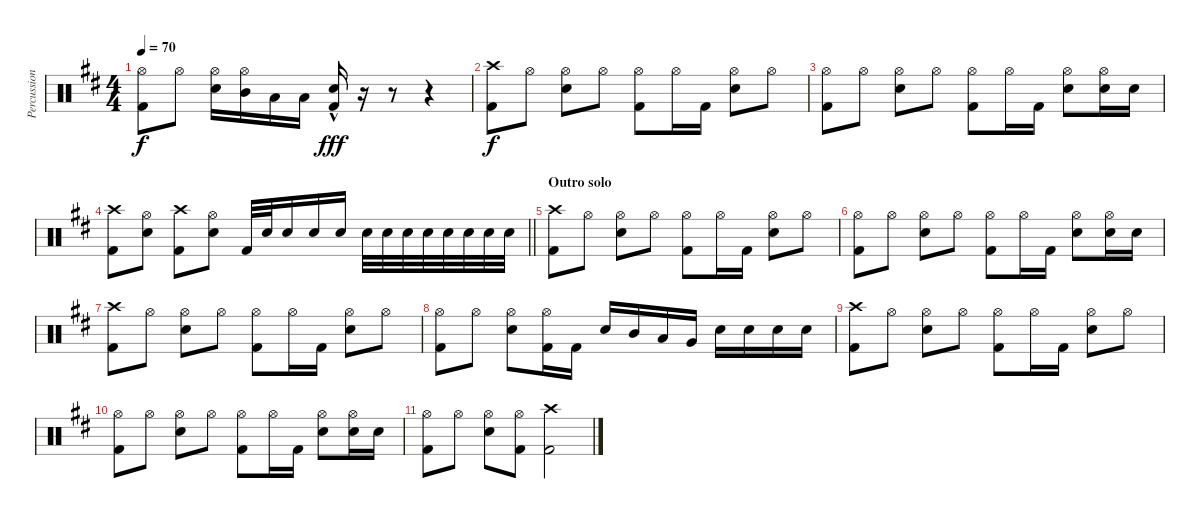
\track ("Percussion" "Percussion") {instrument percussion}
\staff {score}
\articulation defaults
\ts (4 4)
\tempo 70
\clef neutral
\ks d
("Hi-Hat (open)" "Kick (hit) 2").8{dy f} "Hi-Hat (open)".8 ("Hi-Hat (open)" "Snare (hit) 2").16 ("Hi-Hat (open)" "Mid Tom (hit)").16 "Low Tom (hit)".16 "Low Floor Tom (hit)".16 ("Snare (hit) 2"{hac} "Kick (hit) 2").16{dy fff} r.16 r.8 r.4 |
("Crash high (hit)" "Kick (hit) 2").8{dy f} "Hi-Hat (open)".8 ("Hi-Hat (open)" "Snare (hit) 2").8 "Hi-Hat (open)".8 ("Hi-Hat (open)" "Kick (hit) 2").8 "Hi-Hat (open)".16 "Kick (hit) 2".16 ("Hi-Hat (open)" "Snare (hit) 2").8 "Hi-Hat (open)".8 |
("Hi-Hat (open)" "Kick (hit) 2").8 "Hi-Hat (open)".8 ("Hi-Hat (open)" "Snare (hit) 2").8 "Hi-Hat (open)".8 ("Hi-Hat (open)" "Kick (hit) 2").8 "Hi-Hat (open)".16 "Kick (hit) 2".16 ("Hi-Hat (open)" "Snare (hit) 2").8 ("Hi-Hat (open)" "Snare (hit) 2").16 "Snare (hit) 2".16 |
\barLineRight lightlight
("Crash high (hit)" "Kick (hit) 2").8 ("Hi-Hat (open)" "Snare (hit) 2").8 ("Crash high (hit)" "Kick (hit) 2").8 ("Hi-Hat (open)" "Snare (hit) 2").8 "Kick (hit) 2".32 "Snare (hit) 2".32 "Snare (hit) 2".16 "Snare (hit) 2".16 "Snare (hit) 2".16 "Snare (hit) 2".32 "Snare (hit) 2".32 "Snare (hit) 2".32 "Snare (hit) 2".32 "Snare (hit) 2".32 "Snare (hit) 2".32 "Snare (hit) 2".32 "Snare (hit) 2".32 |
\section ("" "Outro solo")
("Crash high (hit)" "Kick (hit) 2").8 "Hi-Hat (open)".8 ("Hi-Hat (open)" "Snare (hit) 2").8 "Hi-Hat (open)".8 ("Hi-Hat (open)" "Kick (hit) 2").8 "Hi-Hat (open)".16 "Kick (hit) 2".16 ("Hi-Hat (open)" "Snare (hit) 2").8 "Hi-Hat (open)".8 |
("Hi-Hat (open)" "Kick (hit) 2").8 "Hi-Hat (open)".8 ("Hi-Hat (open)" "Snare (hit) 2").8 "Hi-Hat (open)".8 ("Hi-Hat (open)" "Kick (hit) 2").8 "Hi-Hat (open)".16 "Kick (hit) 2".16 ("Hi-Hat (open)" "Snare (hit) 2").8 ("Hi-Hat (open)" "Snare (hit) 2").16 "Snare (hit) 2".16 |
("Crash high (hit)" "Kick (hit) 2").8 "Hi-Hat (open)".8 ("Hi-Hat (open)" "Snare (hit) 2").8 "Hi-Hat (open)".8 ("Hi-Hat (open)" "Kick (hit) 2").8 "Hi-Hat (open)".16 "Kick (hit) 2".16 ("Hi-Hat (open)" "Snare (hit) 2").8 "Hi-Hat (open)".8 |
("Hi-Hat (open)" "Kick (hit) 2").8 "Hi-Hat (open)".8 ("Hi-Hat (open)" "Snare (hit) 2").8 ("Hi-Hat (open)" "Kick (hit) 2").16 "Kick (hit) 2".16 "Snare (hit) 2".16 "Mid Tom (hit)".16 "Low Tom (hit)".16 "Very Low Tom (hit)".16 "Snare (hit) 2".16 "Snare (hit) 2".16 "Snare (hit) 2".16 "Snare (hit) 2".16 |
("Crash high (hit)" "Kick (hit) 2").8 "Hi-Hat (open)".8 ("Hi-Hat (open)" "Snare (hit) 2").8 "Hi-Hat (open)".8 ("Hi-Hat (open)" "Kick (hit) 2").8 "Hi-Hat (open)".16 "Kick (hit) 2".16 ("Hi-Hat (open)" "Snare (hit) 2").8 "Hi-Hat (open)".8 |
("Hi-Hat (open)" "Kick (hit) 2").8 "Hi-Hat (open)".8 ("Hi-Hat (open)" "Snare (hit) 2").8 "Hi-Hat (open)".8 ("Hi-Hat (open)" "Kick (hit) 2").8 "Hi-Hat (open)".16 "Kick (hit) 2".16 ("Hi-Hat (open)" "Snare (hit) 2").8 ("Hi-Hat (open)" "Snare (hit) 2").16 "Snare (hit) 2".16 |
("Hi-Hat (open)" "Kick (hit) 2").8 "Hi-Hat (open)".8 ("Hi-Hat (open)" "Snare (hit) 2").8 ("Hi-Hat (open)" "Kick (hit) 2").8 ("Crash high (hit)" "Kick (hit) 2").2
